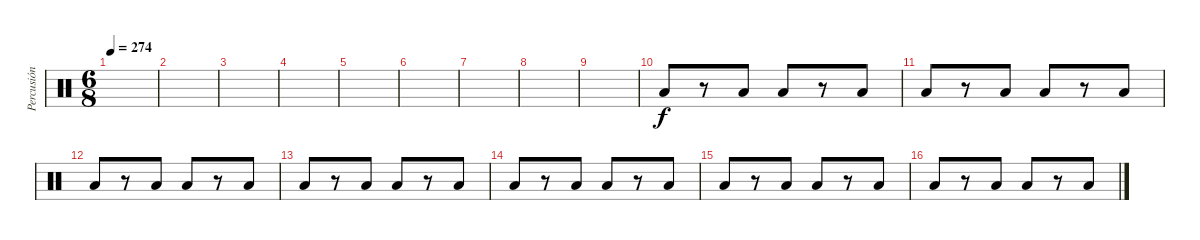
\track ("Percusión Bastarda" "Percusión ") {instrument percussion}
\staff {score}
\articulation defaults
\ts (6 8)
\tempo 274
\clef neutral
\ks c
|
|
|
|
|
|
|
|
|
"Low Floor Tom (hit)".8 r.8 "Low Floor Tom (hit)".8 "Low Tom (hit)".8 r.8 "Low Tom (hit)".8 |
"Low Floor Tom (hit)".8 r.8 "Low Floor Tom (hit)".8 "Low Tom (hit)".8 r.8 "Low Tom (hit)".8 |
"Low Floor Tom (hit)".8 r.8 "Low Floor Tom (hit)".8 "Low Tom (hit)".8 r.8 "Low Tom (hit)".8 |
"Low Floor Tom (hit)".8 r.8 "Low Floor Tom (hit)".8 "Low Tom (hit)".8 r.8 "Low Tom (hit)".8 |
"Low Floor Tom (hit)".8 r.8 "Low Floor Tom (hit)".8 "Low Tom (hit)".8 r.8 "Low Tom (hit)".8 |
"Low Floor Tom (hit)".8 r.8 "Low Floor Tom (hit)".8 "Low Tom (hit)".8 r.8 "Low Tom (hit)".8 |
"Low Floor Tom (hit)".8 r.8 "Low Floor Tom (hit)".8 "Low Tom (hit)".8 r.8 "Low Tom (hit)".8
